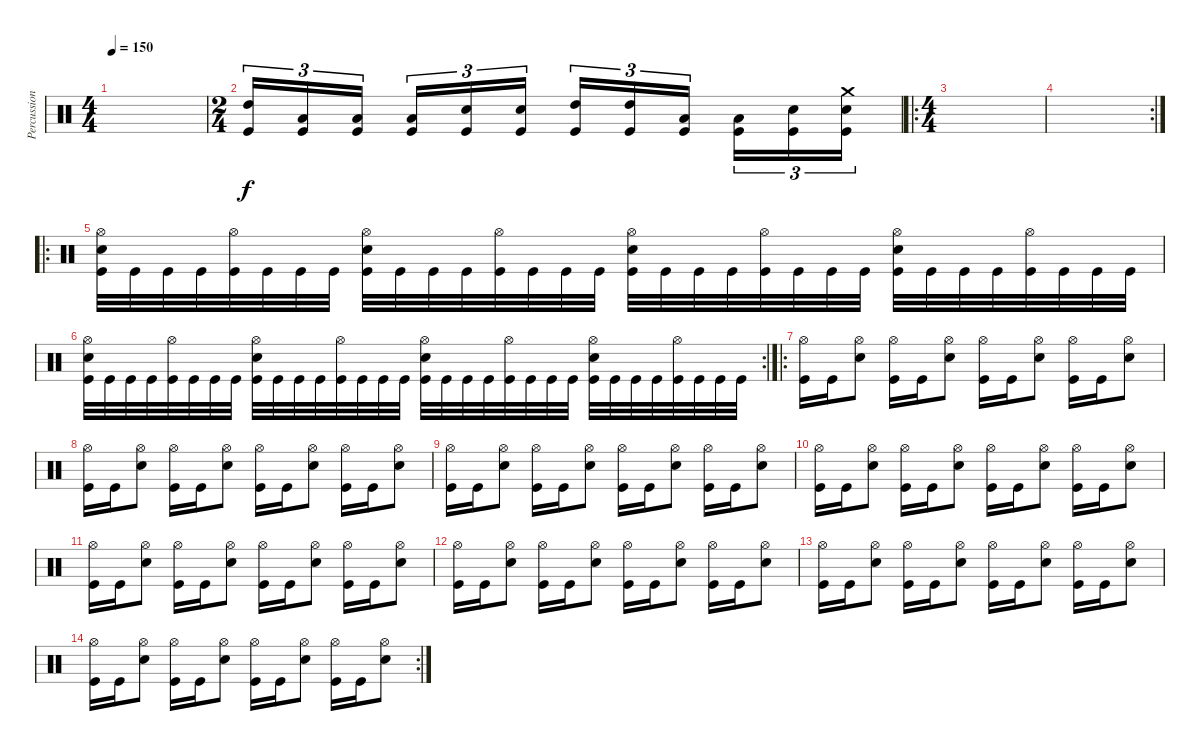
\track ("Percussion" "Percussion") {instrument percussion}
\staff {score}
\articulation defaults
\ts (4 4)
\tempo 150
\clef neutral
\ks c
|
\ts (2 4)
("High Tom (hit)" "Kick (hit)").16{tu (3 2)} ("Low Tom (hit)" "Kick (hit)").16{tu (3 2)} ("Low Floor Tom (hit)" "Kick (hit)").16{tu (3 2) beam splitsecondary} ("Low Tom (hit)" "Kick (hit)").16{tu (3 2)} ("Snare (hit) 2" "Kick (hit)").16{tu (3 2)} ("Snare (hit) 2" "Kick (hit)").16{tu (3 2)} ("High Tom (hit)" "Kick (hit)").16{tu (3 2)} ("High Tom (hit)" "Kick (hit)").16{tu (3 2)} ("Low Floor Tom (hit)" "Kick (hit)").16{tu (3 2) beam splitsecondary} ("Low Floor Tom (hit)" "Kick (hit)").16{tu (3 2)} ("Snare (hit) 2" "Kick (hit)").16{tu (3 2)} ("Crash medium (hit)" "Snare (hit) 2" "Kick (hit)").16{tu (3 2)} |
\ro
\ts (4 4)
|
\rc 2
|
\ro
("Hi-Hat (open)" "Snare (hit) 2" "Kick (hit)").32 "Kick (hit)".32 "Kick (hit)".32 "Kick (hit)".32 ("Hi-Hat (open)" "Kick (hit)").32 "Kick (hit)".32 "Kick (hit)".32 "Kick (hit)".32 ("Hi-Hat (open)" "Snare (hit) 2" "Kick (hit)").32 "Kick (hit)".32 "Kick (hit)".32 "Kick (hit)".32 ("Hi-Hat (open)" "Kick (hit)").32 "Kick (hit)".32 "Kick (hit)".32 "Kick (hit)".32 ("Hi-Hat (open)" "Snare (hit) 2" "Kick (hit)").32 "Kick (hit)".32 "Kick (hit)".32 "Kick (hit)".32 ("Hi-Hat (open)" "Kick (hit)").32 "Kick (hit)".32 "Kick (hit)".32 "Kick (hit)".32 ("Hi-Hat (open)" "Snare (hit) 2" "Kick (hit)").32 "Kick (hit)".32 "Kick (hit)".32 "Kick (hit)".32 ("Hi-Hat (open)" "Kick (hit)").32 "Kick (hit)".32 "Kick (hit)".32 "Kick (hit)".32 |
\rc 2
("Hi-Hat (open)" "Snare (hit) 2" "Kick (hit)").32 "Kick (hit)".32 "Kick (hit)".32 "Kick (hit)".32 ("Hi-Hat (open)" "Kick (hit)").32 "Kick (hit)".32 "Kick (hit)".32 "Kick (hit)".32 ("Hi-Hat (open)" "Snare (hit) 2" "Kick (hit)").32 "Kick (hit)".32 "Kick (hit)".32 "Kick (hit)".32 ("Hi-Hat (open)" "Kick (hit)").32 "Kick (hit)".32 "Kick (hit)".32 "Kick (hit)".32 ("Hi-Hat (open)" "Snare (hit) 2" "Kick (hit)").32 "Kick (hit)".32 "Kick (hit)".32 "Kick (hit)".32 ("Hi-Hat (open)" "Kick (hit)").32 "Kick (hit)".32 "Kick (hit)".32 "Kick (hit)".32 ("Hi-Hat (open)" "Snare (hit) 2" "Kick (hit)").32 "Kick (hit)".32 "Kick (hit)".32 "Kick (hit)".32 ("Hi-Hat (open)" "Kick (hit)").32 "Kick (hit)".32 "Kick (hit)".32 "Kick (hit)".32 |
\ro
("Hi-Hat (open)" "Kick (hit)").16 "Kick (hit)".16 ("Hi-Hat (open)" "Snare (hit) 2").8 ("Hi-Hat (open)" "Kick (hit)").16 "Kick (hit)".16 ("Hi-Hat (open)" "Snare (hit) 2").8 ("Hi-Hat (open)" "Kick (hit)").16 "Kick (hit)".16 ("Hi-Hat (open)" "Snare (hit) 2").8 ("Hi-Hat (open)" "Kick (hit)").16 "Kick (hit)".16 ("Hi-Hat (open)" "Snare (hit) 2").8 |
("Hi-Hat (open)" "Kick (hit)").16 "Kick (hit)".16 ("Hi-Hat (open)" "Snare (hit) 2").8 ("Hi-Hat (open)" "Kick (hit)").16 "Kick (hit)".16 ("Hi-Hat (open)" "Snare (hit) 2").8 ("Hi-Hat (open)" "Kick (hit)").16 "Kick (hit)".16 ("Hi-Hat (open)" "Snare (hit) 2").8 ("Hi-Hat (open)" "Kick (hit)").16 "Kick (hit)".16 ("Hi-Hat (open)" "Snare (hit) 2").8 |
("Hi-Hat (open)" "Kick (hit)").16 "Kick (hit)".16 ("Hi-Hat (open)" "Snare (hit) 2").8 ("Hi-Hat (open)" "Kick (hit)").16 "Kick (hit)".16 ("Hi-Hat (open)" "Snare (hit) 2").8 ("Hi-Hat (open)" "Kick (hit)").16 "Kick (hit)".16 ("Hi-Hat (open)" "Snare (hit) 2").8 ("Hi-Hat (open)" "Kick (hit)").16 "Kick (hit)".16 ("Hi-Hat (open)" "Snare (hit) 2").8 |
("Hi-Hat (open)" "Kick (hit)").16 "Kick (hit)".16 ("Hi-Hat (open)" "Snare (hit) 2").8 ("Hi-Hat (open)" "Kick (hit)").16 "Kick (hit)".16 ("Hi-Hat (open)" "Snare (hit) 2").8 ("Hi-Hat (open)" "Kick (hit)").16 "Kick (hit)".16 ("Hi-Hat (open)" "Snare (hit) 2").8 ("Hi-Hat (open)" "Kick (hit)").16 "Kick (hit)".16 ("Hi-Hat (open)" "Snare (hit) 2").8 |
("Hi-Hat (open)" "Kick (hit)").16 "Kick (hit)".16 ("Hi-Hat (open)" "Snare (hit) 2").8 ("Hi-Hat (open)" "Kick (hit)").16 "Kick (hit)".16 ("Hi-Hat (open)" "Snare (hit) 2").8 ("Hi-Hat (open)" "Kick (hit)").16 "Kick (hit)".16 ("Hi-Hat (open)" "Snare (hit) 2").8 ("Hi-Hat (open)" "Kick (hit)").16 "Kick (hit)".16 ("Hi-Hat (open)" "Snare (hit) 2").8 |
("Hi-Hat (open)" "Kick (hit)").16 "Kick (hit)".16 ("Hi-Hat (open)" "Snare (hit) 2").8 ("Hi-Hat (open)" "Kick (hit)").16 "Kick (hit)".16 ("Hi-Hat (open)" "Snare (hit) 2").8 ("Hi-Hat (open)" "Kick (hit)").16 "Kick (hit)".16 ("Hi-Hat (open)" "Snare (hit) 2").8 ("Hi-Hat (open)" "Kick (hit)").16 "Kick (hit)".16 ("Hi-Hat (open)" "Snare (hit) 2").8 |
("Hi-Hat (open)" "Kick (hit)").16 "Kick (hit)".16 ("Hi-Hat (open)" "Snare (hit) 2").8 ("Hi-Hat (open)" "Kick (hit)").16 "Kick (hit)".16 ("Hi-Hat (open)" "Snare (hit) 2").8 ("Hi-Hat (open)" "Kick (hit)").16 "Kick (hit)".16 ("Hi-Hat (open)" "Snare (hit) 2").8 ("Hi-Hat (open)" "Kick (hit)").16 "Kick (hit)".16 ("Hi-Hat (open)" "Snare (hit) 2").8 |
\rc 2
("Hi-Hat (open)" "Kick (hit)").16 "Kick (hit)".16 ("Hi-Hat (open)" "Snare (hit) 2").8 ("Hi-Hat (open)" "Kick (hit)").16 "Kick (hit)".16 ("Hi-Hat (open)" "Snare (hit) 2").8 ("Hi-Hat (open)" "Kick (hit)").16 "Kick (hit)".16 ("Hi-Hat (open)" "Snare (hit) 2").8 ("Hi-Hat (open)" "Kick (hit)").16 "Kick (hit)".16 ("Hi-Hat (open)" "Snare (hit) 2").8
